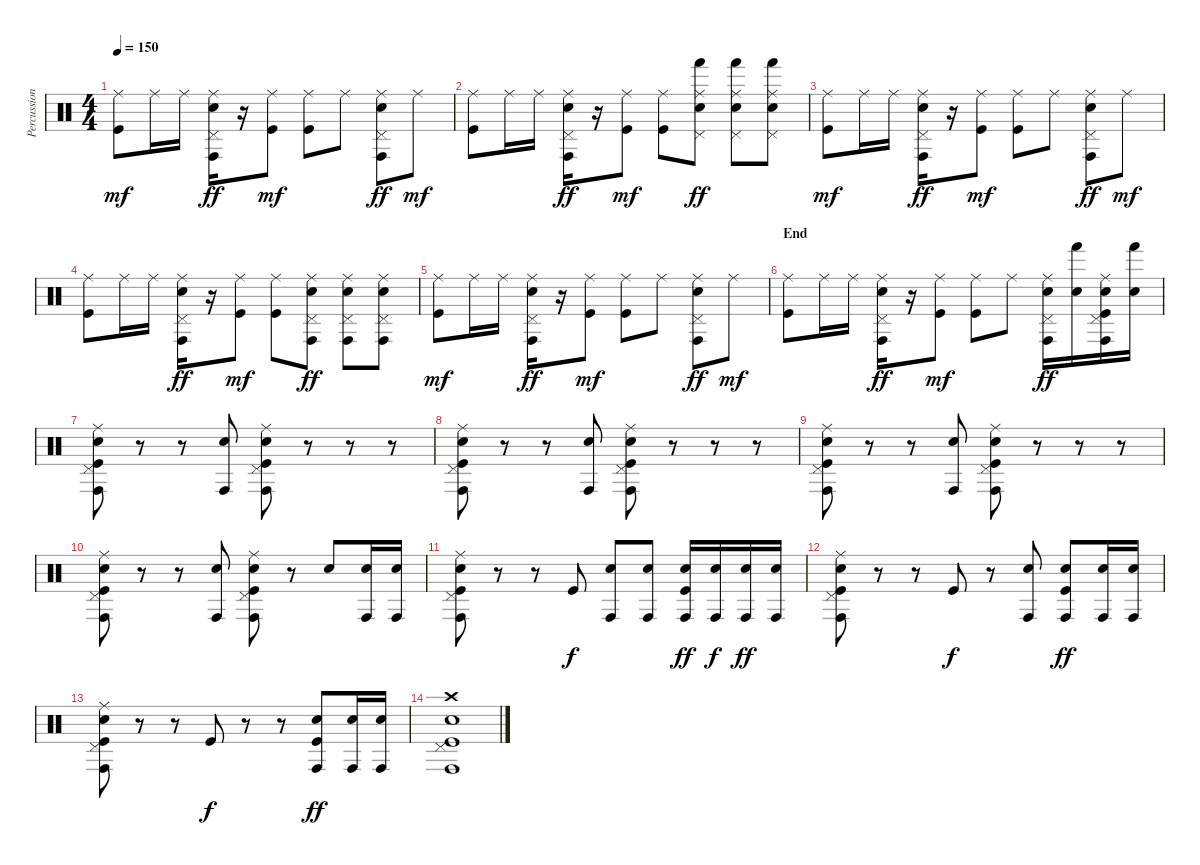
\track ("Percussion" "Percussion") {instrument percussion}
\staff {score}
\articulation defaults
\ts (4 4)
\tempo 150
\clef neutral
\ks c
("Ride (middle)" "Kick (hit)").8{dy mf} "Ride (middle)".16 "Ride (middle)".16 ("Ride (middle)" "Pedal Hi-Hat (hit)" "Conga high (hit)" "Electric Snare (hit)").16{dy ff} r.16 ("Ride (middle)" "Kick (hit)").8{dy mf} ("Ride (middle)" "Kick (hit)").8 "Ride (middle)".8 ("Ride (middle)" "Pedal Hi-Hat (hit)" "Conga high (hit)" "Electric Snare (hit)").8{dy ff} "Ride (middle)".8{dy mf} |
("Ride (middle)" "Kick (hit)").8 "Ride (middle)".16 "Ride (middle)".16 ("Ride (middle)" "Pedal Hi-Hat (hit)" "Conga high (hit)" "Electric Snare (hit)").16{dy ff} r.16 ("Ride (middle)" "Kick (hit)").8{dy mf} ("Ride (middle)" "Kick (hit)").8 ("Ride (middle)" "Pedal Hi-Hat (hit)" "Hand (hit)" "Electric Snare (hit)").8{dy ff} ("Ride (middle)" "Pedal Hi-Hat (hit)" "Hand (hit)" "Electric Snare (hit)").8 ("Ride (middle)" "Pedal Hi-Hat (hit)" "Hand (hit)" "Electric Snare (hit)").8 |
("Ride (middle)" "Kick (hit)").8{dy mf} "Ride (middle)".16 "Ride (middle)".16 ("Ride (middle)" "Pedal Hi-Hat (hit)" "Conga high (hit)" "Electric Snare (hit)").16{dy ff} r.16 ("Ride (middle)" "Kick (hit)").8{dy mf} ("Ride (middle)" "Kick (hit)").8 "Ride (middle)".8 ("Ride (middle)" "Pedal Hi-Hat (hit)" "Conga high (hit)" "Electric Snare (hit)").8{dy ff} "Ride (middle)".8{dy mf} |
("Ride (middle)" "Kick (hit)").8 "Ride (middle)".16 "Ride (middle)".16 ("Ride (middle)" "Pedal Hi-Hat (hit)" "Conga high (hit)" "Electric Snare (hit)").16{dy ff} r.16 ("Ride (middle)" "Kick (hit)").8{dy mf} ("Ride (middle)" "Kick (hit)").8 ("Ride (middle)" "Pedal Hi-Hat (hit)" "Conga high (hit)" "Electric Snare (hit)").8{dy ff} ("Ride (middle)" "Pedal Hi-Hat (hit)" "Conga high (hit)" "Electric Snare (hit)").8 ("Ride (middle)" "Pedal Hi-Hat (hit)" "Conga high (hit)" "Electric Snare (hit)").8 |
("Ride (middle)" "Kick (hit)").8{dy mf} "Ride (middle)".16 "Ride (middle)".16 ("Ride (middle)" "Pedal Hi-Hat (hit)" "Conga high (hit)" "Electric Snare (hit)").16{dy ff} r.16 ("Ride (middle)" "Kick (hit)").8{dy mf} ("Ride (middle)" "Kick (hit)").8 "Ride (middle)".8 ("Ride (middle)" "Pedal Hi-Hat (hit)" "Conga high (hit)" "Electric Snare (hit)").8{dy ff} "Ride (middle)".8{dy mf} |
\section ("" "End")
("Ride (middle)" "Kick (hit)").8 "Ride (middle)".16 "Ride (middle)".16 ("Ride (middle)" "Pedal Hi-Hat (hit)" "Conga high (hit)" "Electric Snare (hit)").16{dy ff} r.16 ("Ride (middle)" "Kick (hit)").8{dy mf} ("Ride (middle)" "Kick (hit)").8 "Ride (middle)".8 ("Ride (middle)" "Pedal Hi-Hat (hit)" "Conga high (hit)" "Electric Snare (hit)").16{dy ff} ("Hand (hit)" "Electric Snare (hit)").16 ("Ride (middle)" "Pedal Hi-Hat (hit)" "Conga high (hit)" "Electric Snare (hit)" "Kick (hit)").16 ("Hand (hit)" "Electric Snare (hit)").16 |
("Ride (middle)" "Pedal Hi-Hat (hit)" "Conga high (hit)" "Electric Snare (hit)" "Kick (hit)").8 r.8 r.8 ("Conga high (hit)" "Electric Snare (hit)").8 ("Ride (middle)" "Pedal Hi-Hat (hit)" "Conga high (hit)" "Electric Snare (hit)" "Kick (hit)").8 r.8 r.8 r.8 |
("Ride (middle)" "Pedal Hi-Hat (hit)" "Conga high (hit)" "Electric Snare (hit)" "Kick (hit)").8 r.8 r.8 ("Conga high (hit)" "Electric Snare (hit)").8 ("Ride (middle)" "Pedal Hi-Hat (hit)" "Conga high (hit)" "Electric Snare (hit)" "Kick (hit)").8 r.8 r.8 r.8 |
("Ride (middle)" "Pedal Hi-Hat (hit)" "Conga high (hit)" "Electric Snare (hit)" "Kick (hit)").8 r.8 r.8 ("Conga high (hit)" "Electric Snare (hit)").8 ("Ride (middle)" "Pedal Hi-Hat (hit)" "Conga high (hit)" "Electric Snare (hit)" "Kick (hit)").8 r.8 r.8 r.8 |
("Ride (middle)" "Pedal Hi-Hat (hit)" "Conga high (hit)" "Electric Snare (hit)" "Kick (hit)").8 r.8 r.8 ("Conga high (hit)" "Electric Snare (hit)").8 ("Ride (middle)" "Pedal Hi-Hat (hit)" "Conga high (hit)" "Electric Snare (hit)" "Kick (hit)").8 r.8 "Electric Snare (hit)".8 ("Conga high (hit)" "Electric Snare (hit)").16 ("Conga high (hit)" "Electric Snare (hit)").16 |
("Ride (middle)" "Pedal Hi-Hat (hit)" "Conga high (hit)" "Electric Snare (hit)" "Kick (hit)").8 r.8 r.8 "Kick (hit)".8{dy f} ("Conga high (hit)" "Electric Snare (hit)").8 ("Conga high (hit)" "Electric Snare (hit)").8 ("Conga high (hit)" "Electric Snare (hit)" "Kick (hit)").16{dy ff} ("Conga high (hit)" "Electric Snare (hit)").16{dy f} ("Conga high (hit)" "Electric Snare (hit)").16{dy ff} ("Conga high (hit)" "Electric Snare (hit)").16 |
("Ride (middle)" "Pedal Hi-Hat (hit)" "Conga high (hit)" "Electric Snare (hit)" "Kick (hit)").8 r.8 r.8 "Kick (hit)".8{dy f} r.8 ("Conga high (hit)" "Electric Snare (hit)").8 ("Conga high (hit)" "Electric Snare (hit)" "Kick (hit)").8{dy ff} ("Conga high (hit)" "Electric Snare (hit)").16 ("Conga high (hit)" "Electric Snare (hit)").16 |
("Ride (middle)" "Pedal Hi-Hat (hit)" "Conga high (hit)" "Electric Snare (hit)" "Kick (hit)").8 r.8 r.8 "Kick (hit)".8{dy f} r.8 r.8 ("Conga high (hit)" "Electric Snare (hit)" "Kick (hit)").8{dy ff} ("Conga high (hit)" "Electric Snare (hit)").16 ("Conga high (hit)" "Electric Snare (hit)").16 |
("Crash high (hit)" "Pedal Hi-Hat (hit)" "Conga high (hit)" "Electric Snare (hit)" "Kick (hit)").1
